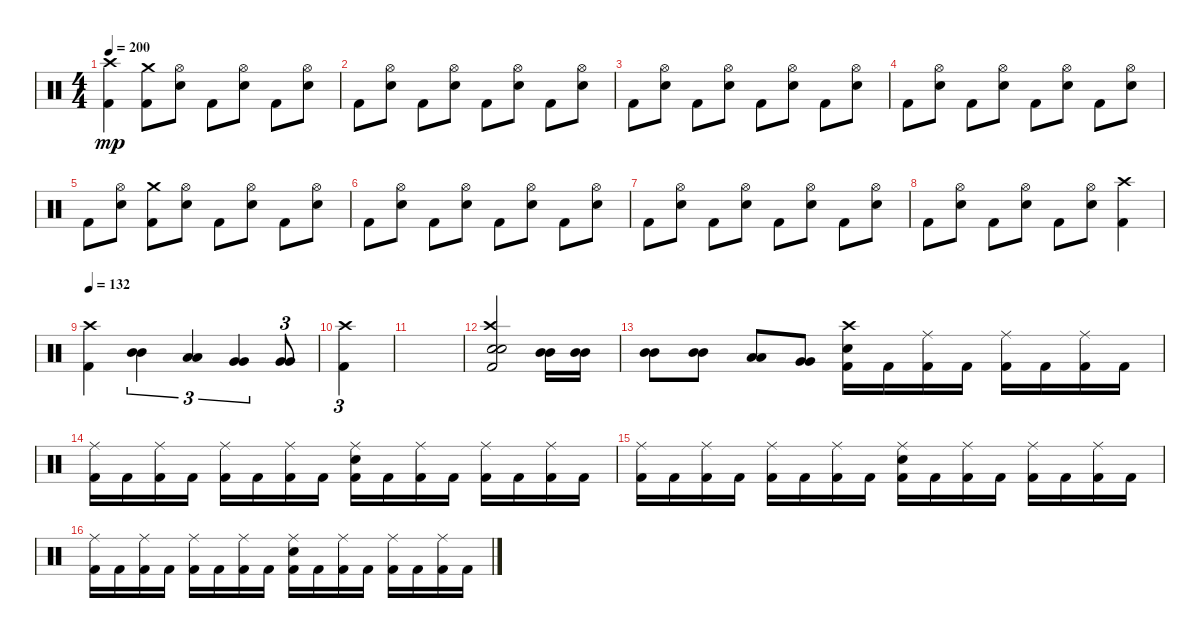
\track "" {instrument percussion}
\staff {score}
\articulation defaults
\ts (4 4)
\tempo 200
\clef neutral
\ks c
("Kick (hit) 2" "Crash high (hit)").4{dy mp} ("Kick (hit) 2" "Crash medium (hit)").8 ("Electric Snare (hit)" "Hi-Hat (open)").8 "Kick (hit) 2".8 ("Electric Snare (hit)" "Hi-Hat (open)").8 "Kick (hit) 2".8 ("Electric Snare (hit)" "Hi-Hat (open)").8 |
"Kick (hit) 2".8 ("Electric Snare (hit)" "Hi-Hat (open)").8 "Kick (hit) 2".8 ("Electric Snare (hit)" "Hi-Hat (open)").8 "Kick (hit) 2".8 ("Electric Snare (hit)" "Hi-Hat (open)").8 "Kick (hit) 2".8 ("Electric Snare (hit)" "Hi-Hat (open)").8 |
"Kick (hit) 2".8 ("Electric Snare (hit)" "Hi-Hat (open)").8 "Kick (hit) 2".8 ("Electric Snare (hit)" "Hi-Hat (open)").8 "Kick (hit) 2".8 ("Electric Snare (hit)" "Hi-Hat (open)").8 "Kick (hit) 2".8 ("Electric Snare (hit)" "Hi-Hat (open)").8 |
"Kick (hit) 2".8 ("Electric Snare (hit)" "Hi-Hat (open)").8 "Kick (hit) 2".8 ("Electric Snare (hit)" "Hi-Hat (open)").8 "Kick (hit) 2".8 ("Electric Snare (hit)" "Hi-Hat (open)").8 "Kick (hit) 2".8 ("Electric Snare (hit)" "Hi-Hat (open)").8 |
"Kick (hit) 2".8 ("Electric Snare (hit)" "Hi-Hat (open)").8 ("Kick (hit) 2" "Crash medium (hit)").8 ("Electric Snare (hit)" "Hi-Hat (open)").8 "Kick (hit) 2".8 ("Electric Snare (hit)" "Hi-Hat (open)").8 "Kick (hit) 2".8 ("Electric Snare (hit)" "Hi-Hat (open)").8 |
"Kick (hit) 2".8 ("Electric Snare (hit)" "Hi-Hat (open)").8 "Kick (hit) 2".8 ("Electric Snare (hit)" "Hi-Hat (open)").8 "Kick (hit) 2".8 ("Electric Snare (hit)" "Hi-Hat (open)").8 "Kick (hit) 2".8 ("Electric Snare (hit)" "Hi-Hat (open)").8 |
"Kick (hit) 2".8 ("Electric Snare (hit)" "Hi-Hat (open)").8 "Kick (hit) 2".8 ("Electric Snare (hit)" "Hi-Hat (open)").8 "Kick (hit) 2".8 ("Electric Snare (hit)" "Hi-Hat (open)").8 "Kick (hit) 2".8 ("Electric Snare (hit)" "Hi-Hat (open)").8 |
"Kick (hit) 2".8 ("Electric Snare (hit)" "Hi-Hat (open)").8 "Kick (hit) 2".8 ("Electric Snare (hit)" "Hi-Hat (open)").8 "Kick (hit) 2".8 ("Electric Snare (hit)" "Hi-Hat (open)").8 ("Kick (hit) 2" "Crash high (hit)").4 |
\tempo 132
("Kick (hit) 2" "Crash high (hit)").4 ("Mid Tom (hit)" "Mid Tom (hit)").4{tu (3 2)} ("Low Tom (hit)" "Low Tom (hit)").4{tu (3 2)} ("Very Low Tom (hit)" "Very Low Tom (hit)").4{tu (3 2)} ("Very Low Tom (hit)" "Very Low Tom (hit)").8{tu (3 2)} |
("Kick (hit) 2" "Crash high (hit)").4{tu (3 2)} |
|
("Kick (hit) 2" "Electric Snare (hit)" "Electric Snare (hit)" "Crash high (hit)").2 ("Mid Tom (hit)" "Mid Tom (hit)").16 ("Mid Tom (hit)" "Mid Tom (hit)").16 |
("Mid Tom (hit)" "Mid Tom (hit)").8 ("Mid Tom (hit)" "Mid Tom (hit)").8 ("Low Tom (hit)" "Low Tom (hit)").8 ("Very Low Tom (hit)" "Very Low Tom (hit)").8 ("Kick (hit) 2" "Electric Snare (hit)" "Crash high (hit)").16 "Kick (hit) 2".16 ("Kick (hit) 2" "Ride (middle)").16 "Kick (hit) 2".16 ("Kick (hit) 2" "Ride (middle)").16 "Kick (hit) 2".16 ("Kick (hit) 2" "Ride (middle)").16 "Kick (hit) 2".16 |
("Kick (hit) 2" "Ride (middle)").16 "Kick (hit) 2".16 ("Kick (hit) 2" "Ride (middle)").16 "Kick (hit) 2".16 ("Kick (hit) 2" "Ride (middle)").16 "Kick (hit) 2".16 ("Kick (hit) 2" "Ride (middle)").16 "Kick (hit) 2".16 ("Kick (hit) 2" "Electric Snare (hit)" "Ride (middle)").16 "Kick (hit) 2".16 ("Kick (hit) 2" "Ride (middle)").16 "Kick (hit) 2".16 ("Kick (hit) 2" "Ride (middle)").16 "Kick (hit) 2".16 ("Kick (hit) 2" "Ride (middle)").16 "Kick (hit) 2".16 |
("Kick (hit) 2" "Ride (middle)").16 "Kick (hit) 2".16 ("Kick (hit) 2" "Ride (middle)").16 "Kick (hit) 2".16 ("Kick (hit) 2" "Ride (middle)").16 "Kick (hit) 2".16 ("Kick (hit) 2" "Ride (middle)").16 "Kick (hit) 2".16 ("Kick (hit) 2" "Electric Snare (hit)" "Ride (middle)").16 "Kick (hit) 2".16 ("Kick (hit) 2" "Ride (middle)").16 "Kick (hit) 2".16 ("Kick (hit) 2" "Ride (middle)").16 "Kick (hit) 2".16 ("Kick (hit) 2" "Ride (middle)").16 "Kick (hit) 2".16 |
("Kick (hit) 2" "Ride (middle)").16 "Kick (hit) 2".16 ("Kick (hit) 2" "Ride (middle)").16 "Kick (hit) 2".16 ("Kick (hit) 2" "Ride (middle)").16 "Kick (hit) 2".16 ("Kick (hit) 2" "Ride (middle)").16 "Kick (hit) 2".16 ("Kick (hit) 2" "Electric Snare (hit)" "Ride (middle)").16 "Kick (hit) 2".16 ("Kick (hit) 2" "Ride (middle)").16 "Kick (hit) 2".16 ("Kick (hit) 2" "Ride (middle)").16 "Kick (hit) 2".16 ("Kick (hit) 2" "Ride (middle)").16 "Kick (hit) 2".16
